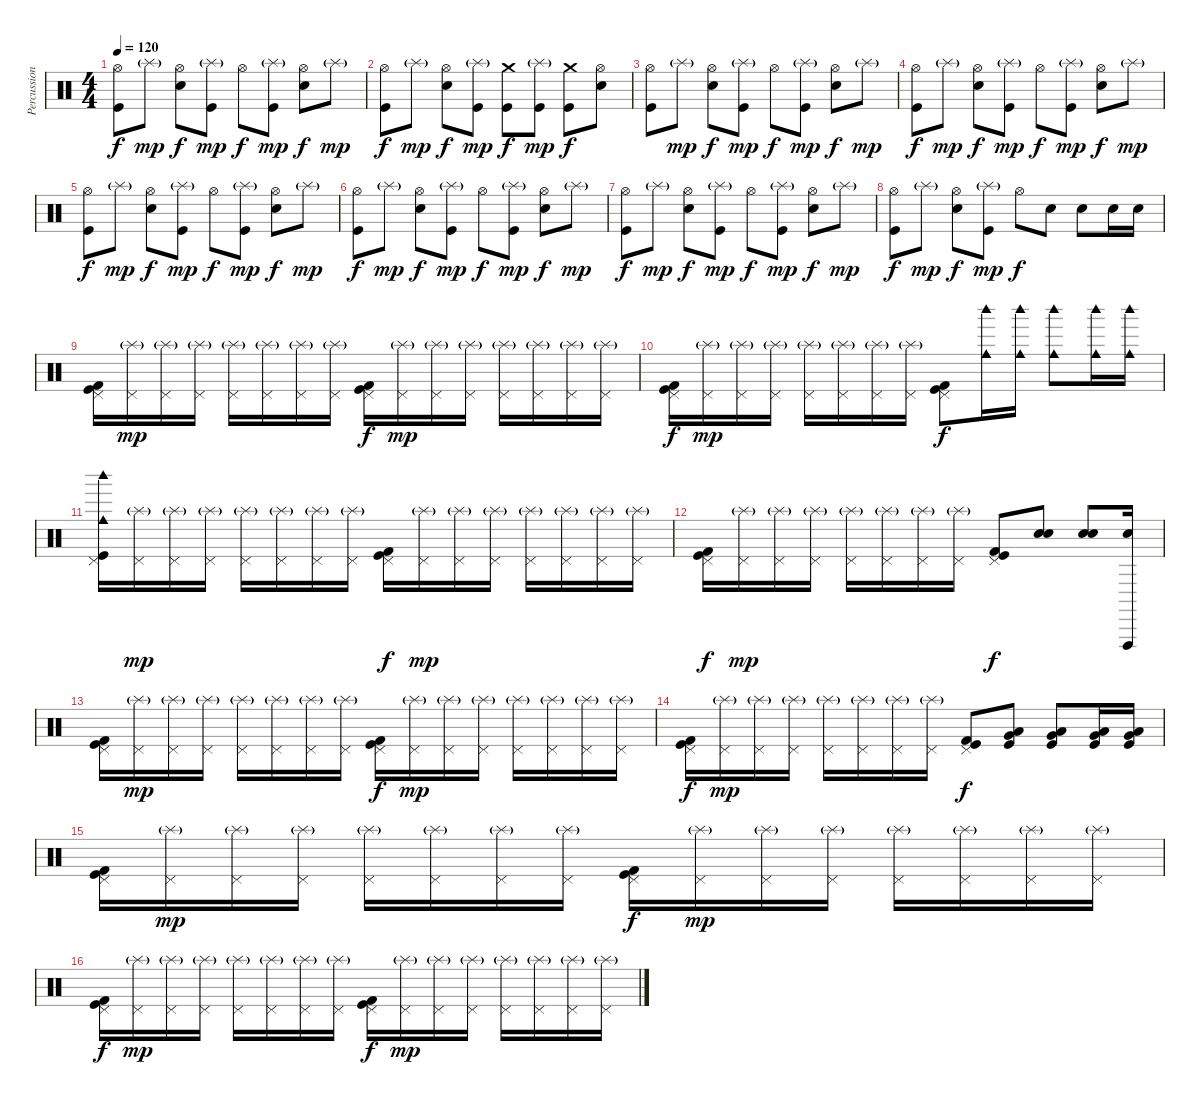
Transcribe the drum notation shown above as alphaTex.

\track ("Percussion" "Percussion") {instrument percussion}
\staff {score}
\articulation defaults
\ts (4 4)
\tempo 120
\clef neutral
\ks c
("Hi-Hat (open)" "Kick (hit)").8{dy f} "Splash (hit)"{g}.8{dy mp} ("Hi-Hat (open)" "Electric Snare (hit)").8{dy f} ("Splash (hit)"{g} "Kick (hit)").8{dy mp} "Hi-Hat (open)".8{dy f} ("Splash (hit)"{g} "Kick (hit)").8{dy mp} ("Hi-Hat (open)" "Electric Snare (hit)").8{dy f} "Splash (hit)"{g}.8{dy mp} |
("Hi-Hat (open)" "Kick (hit)").8{dy f} "Splash (hit)"{g}.8{dy mp} ("Hi-Hat (open)" "Electric Snare (hit)").8{dy f} ("Splash (hit)"{g} "Kick (hit)").8{dy mp} ("Crash medium (hit)" "Kick (hit)").8{dy f} ("Splash (hit)"{g} "Kick (hit)").8{dy mp} ("Crash medium (hit)" "Kick (hit)").8{dy f} ("Electric Snare (hit)" "Hi-Hat (open)").8 |
("Hi-Hat (open)" "Kick (hit)").8 "Splash (hit)"{g}.8{dy mp} ("Hi-Hat (open)" "Electric Snare (hit)").8{dy f} ("Splash (hit)"{g} "Kick (hit)").8{dy mp} "Hi-Hat (open)".8{dy f} ("Splash (hit)"{g} "Kick (hit)").8{dy mp} ("Hi-Hat (open)" "Electric Snare (hit)").8{dy f} "Splash (hit)"{g}.8{dy mp} |
("Hi-Hat (open)" "Kick (hit)").8{dy f} "Splash (hit)"{g}.8{dy mp} ("Hi-Hat (open)" "Electric Snare (hit)").8{dy f} ("Splash (hit)"{g} "Kick (hit)").8{dy mp} "Hi-Hat (open)".8{dy f} ("Splash (hit)"{g} "Kick (hit)").8{dy mp} ("Hi-Hat (open)" "Electric Snare (hit)").8{dy f} "Splash (hit)"{g}.8{dy mp} |
("Hi-Hat (open)" "Kick (hit)").8{dy f} "Splash (hit)"{g}.8{dy mp} ("Hi-Hat (open)" "Electric Snare (hit)").8{dy f} ("Splash (hit)"{g} "Kick (hit)").8{dy mp} "Hi-Hat (open)".8{dy f} ("Splash (hit)"{g} "Kick (hit)").8{dy mp} ("Hi-Hat (open)" "Electric Snare (hit)").8{dy f} "Splash (hit)"{g}.8{dy mp} |
("Hi-Hat (open)" "Kick (hit)").8{dy f} "Splash (hit)"{g}.8{dy mp} ("Hi-Hat (open)" "Electric Snare (hit)").8{dy f} ("Splash (hit)"{g} "Kick (hit)").8{dy mp} "Hi-Hat (open)".8{dy f} ("Splash (hit)"{g} "Kick (hit)").8{dy mp} ("Hi-Hat (open)" "Electric Snare (hit)").8{dy f} "Splash (hit)"{g}.8{dy mp} |
("Hi-Hat (open)" "Kick (hit)").8{dy f} "Splash (hit)"{g}.8{dy mp} ("Hi-Hat (open)" "Electric Snare (hit)").8{dy f} ("Splash (hit)"{g} "Kick (hit)").8{dy mp} "Hi-Hat (open)".8{dy f} ("Splash (hit)"{g} "Kick (hit)").8{dy mp} ("Hi-Hat (open)" "Electric Snare (hit)").8{dy f} "Splash (hit)"{g}.8{dy mp} |
("Hi-Hat (open)" "Kick (hit)").8{dy f} "Splash (hit)"{g}.8{dy mp} ("Hi-Hat (open)" "Electric Snare (hit)").8{dy f} ("Splash (hit)"{g} "Kick (hit)").8{dy mp} "Hi-Hat (open)".8{dy f} "Electric Snare (hit)".8 "Electric Snare (hit)".8 "Electric Snare (hit)".16 "Electric Snare (hit)".16 |
("Kick (hit) 2" "Pedal Hi-Hat (hit)" "Kick (hit)").16 ("Pedal Hi-Hat (hit)" "Splash (hit)"{g}).16{dy mp} ("Pedal Hi-Hat (hit)" "Splash (hit)"{g}).16 ("Pedal Hi-Hat (hit)" "Splash (hit)"{g}).16 ("Pedal Hi-Hat (hit)" "Splash (hit)"{g}).16 ("Pedal Hi-Hat (hit)" "Splash (hit)"{g}).16 ("Pedal Hi-Hat (hit)" "Splash (hit)"{g}).16 ("Pedal Hi-Hat (hit)" "Splash (hit)"{g}).16 ("Kick (hit) 2" "Pedal Hi-Hat (hit)" "Kick (hit)").16{dy f} ("Pedal Hi-Hat (hit)" "Splash (hit)"{g}).16{dy mp} ("Pedal Hi-Hat (hit)" "Splash (hit)"{g}).16 ("Pedal Hi-Hat (hit)" "Splash (hit)"{g}).16 ("Pedal Hi-Hat (hit)" "Splash (hit)"{g}).16 ("Pedal Hi-Hat (hit)" "Splash (hit)"{g}).16 ("Pedal Hi-Hat (hit)" "Splash (hit)"{g}).16 ("Pedal Hi-Hat (hit)" "Splash (hit)"{g}).16 |
("Kick (hit) 2" "Pedal Hi-Hat (hit)" "Kick (hit)").16{dy f} ("Pedal Hi-Hat (hit)" "Splash (hit)"{g}).16{dy mp} ("Pedal Hi-Hat (hit)" "Splash (hit)"{g}).16 ("Pedal Hi-Hat (hit)" "Splash (hit)"{g}).16 ("Pedal Hi-Hat (hit)" "Splash (hit)"{g}).16 ("Pedal Hi-Hat (hit)" "Splash (hit)"{g}).16 ("Pedal Hi-Hat (hit)" "Splash (hit)"{g}).16 ("Pedal Hi-Hat (hit)" "Splash (hit)"{g}).16 ("Kick (hit) 2" "Pedal Hi-Hat (hit)" "Kick (hit)").8{dy f} ("Cowbell medium (hit)" "Woodblock high (hit)").16 ("Cowbell medium (hit)" "Woodblock high (hit)").16 ("Cowbell medium (hit)" "Woodblock high (hit)").8 ("Cowbell medium (hit)" "Woodblock high (hit)").16 ("Cowbell medium (hit)" "Woodblock high (hit)").16 |
("Woodblock high (hit)" "Cowbell medium (hit)" "Pedal Hi-Hat (hit)" "Kick (hit)").16 ("Pedal Hi-Hat (hit)" "Splash (hit)"{g}).16{dy mp} ("Pedal Hi-Hat (hit)" "Splash (hit)"{g}).16 ("Pedal Hi-Hat (hit)" "Splash (hit)"{g}).16 ("Pedal Hi-Hat (hit)" "Splash (hit)"{g}).16 ("Pedal Hi-Hat (hit)" "Splash (hit)"{g}).16 ("Pedal Hi-Hat (hit)" "Splash (hit)"{g}).16 ("Pedal Hi-Hat (hit)" "Splash (hit)"{g}).16 ("Kick (hit) 2" "Pedal Hi-Hat (hit)" "Kick (hit)").16{dy f} ("Pedal Hi-Hat (hit)" "Splash (hit)"{g}).16{dy mp} ("Pedal Hi-Hat (hit)" "Splash (hit)"{g}).16 ("Pedal Hi-Hat (hit)" "Splash (hit)"{g}).16 ("Pedal Hi-Hat (hit)" "Splash (hit)"{g}).16 ("Pedal Hi-Hat (hit)" "Splash (hit)"{g}).16 ("Pedal Hi-Hat (hit)" "Splash (hit)"{g}).16 ("Pedal Hi-Hat (hit)" "Splash (hit)"{g}).16 |
("Kick (hit) 2" "Pedal Hi-Hat (hit)" "Kick (hit)").16{dy f} ("Pedal Hi-Hat (hit)" "Splash (hit)"{g}).16{dy mp} ("Pedal Hi-Hat (hit)" "Splash (hit)"{g}).16 ("Pedal Hi-Hat (hit)" "Splash (hit)"{g}).16 ("Pedal Hi-Hat (hit)" "Splash (hit)"{g}).16 ("Pedal Hi-Hat (hit)" "Splash (hit)"{g}).16 ("Pedal Hi-Hat (hit)" "Splash (hit)"{g}).16 ("Pedal Hi-Hat (hit)" "Splash (hit)"{g}).16 ("Kick (hit) 2" "Pedal Hi-Hat (hit)" "Kick (hit)").8{dy f} ("Electric Snare (hit)" "Electric Snare (hit)").8 ("Electric Snare (hit)" "Electric Snare (hit)").8 ("Electric Snare (hit)" "Vibraslap (hit)").16 |
("Kick (hit) 2" "Pedal Hi-Hat (hit)" "Kick (hit)").16 ("Pedal Hi-Hat (hit)" "Splash (hit)"{g}).16{dy mp} ("Pedal Hi-Hat (hit)" "Splash (hit)"{g}).16 ("Pedal Hi-Hat (hit)" "Splash (hit)"{g}).16 ("Pedal Hi-Hat (hit)" "Splash (hit)"{g}).16 ("Pedal Hi-Hat (hit)" "Splash (hit)"{g}).16 ("Pedal Hi-Hat (hit)" "Splash (hit)"{g}).16 ("Pedal Hi-Hat (hit)" "Splash (hit)"{g}).16 ("Kick (hit) 2" "Pedal Hi-Hat (hit)" "Kick (hit)").16{dy f} ("Pedal Hi-Hat (hit)" "Splash (hit)"{g}).16{dy mp} ("Pedal Hi-Hat (hit)" "Splash (hit)"{g}).16 ("Pedal Hi-Hat (hit)" "Splash (hit)"{g}).16 ("Pedal Hi-Hat (hit)" "Splash (hit)"{g}).16 ("Pedal Hi-Hat (hit)" "Splash (hit)"{g}).16 ("Pedal Hi-Hat (hit)" "Splash (hit)"{g}).16 ("Pedal Hi-Hat (hit)" "Splash (hit)"{g}).16 |
("Kick (hit) 2" "Pedal Hi-Hat (hit)" "Kick (hit)").16{dy f} ("Pedal Hi-Hat (hit)" "Splash (hit)"{g}).16{dy mp} ("Pedal Hi-Hat (hit)" "Splash (hit)"{g}).16 ("Pedal Hi-Hat (hit)" "Splash (hit)"{g}).16 ("Pedal Hi-Hat (hit)" "Splash (hit)"{g}).16 ("Pedal Hi-Hat (hit)" "Splash (hit)"{g}).16 ("Pedal Hi-Hat (hit)" "Splash (hit)"{g}).16 ("Pedal Hi-Hat (hit)" "Splash (hit)"{g}).16 ("Kick (hit) 2" "Pedal Hi-Hat (hit)" "Kick (hit)").8{dy f} ("Very Low Tom (hit)" "Low Floor Tom (hit)" "Kick (hit)").8 ("Very Low Tom (hit)" "Low Floor Tom (hit)" "Kick (hit)").8 ("Very Low Tom (hit)" "Low Floor Tom (hit)" "Kick (hit)").16 ("Very Low Tom (hit)" "Low Floor Tom (hit)" "Kick (hit)").16 |
("Kick (hit) 2" "Pedal Hi-Hat (hit)" "Kick (hit)").16 ("Pedal Hi-Hat (hit)" "Splash (hit)"{g}).16{dy mp} ("Pedal Hi-Hat (hit)" "Splash (hit)"{g}).16 ("Pedal Hi-Hat (hit)" "Splash (hit)"{g}).16 ("Pedal Hi-Hat (hit)" "Splash (hit)"{g}).16 ("Pedal Hi-Hat (hit)" "Splash (hit)"{g}).16 ("Pedal Hi-Hat (hit)" "Splash (hit)"{g}).16 ("Pedal Hi-Hat (hit)" "Splash (hit)"{g}).16 ("Kick (hit) 2" "Pedal Hi-Hat (hit)" "Kick (hit)").16{dy f} ("Pedal Hi-Hat (hit)" "Splash (hit)"{g}).16{dy mp} ("Pedal Hi-Hat (hit)" "Splash (hit)"{g}).16 ("Pedal Hi-Hat (hit)" "Splash (hit)"{g}).16 ("Pedal Hi-Hat (hit)" "Splash (hit)"{g}).16 ("Pedal Hi-Hat (hit)" "Splash (hit)"{g}).16 ("Pedal Hi-Hat (hit)" "Splash (hit)"{g}).16 ("Pedal Hi-Hat (hit)" "Splash (hit)"{g}).16 |
("Kick (hit) 2" "Pedal Hi-Hat (hit)" "Kick (hit)").16{dy f} ("Pedal Hi-Hat (hit)" "Splash (hit)"{g}).16{dy mp} ("Pedal Hi-Hat (hit)" "Splash (hit)"{g}).16 ("Pedal Hi-Hat (hit)" "Splash (hit)"{g}).16 ("Pedal Hi-Hat (hit)" "Splash (hit)"{g}).16 ("Pedal Hi-Hat (hit)" "Splash (hit)"{g}).16 ("Pedal Hi-Hat (hit)" "Splash (hit)"{g}).16 ("Pedal Hi-Hat (hit)" "Splash (hit)"{g}).16 ("Kick (hit) 2" "Pedal Hi-Hat (hit)" "Kick (hit)").16{dy f} ("Pedal Hi-Hat (hit)" "Splash (hit)"{g}).16{dy mp} ("Pedal Hi-Hat (hit)" "Splash (hit)"{g}).16 ("Pedal Hi-Hat (hit)" "Splash (hit)"{g}).16 ("Pedal Hi-Hat (hit)" "Splash (hit)"{g}).16 ("Pedal Hi-Hat (hit)" "Splash (hit)"{g}).16 ("Pedal Hi-Hat (hit)" "Splash (hit)"{g}).16 ("Pedal Hi-Hat (hit)" "Splash (hit)"{g}).16
